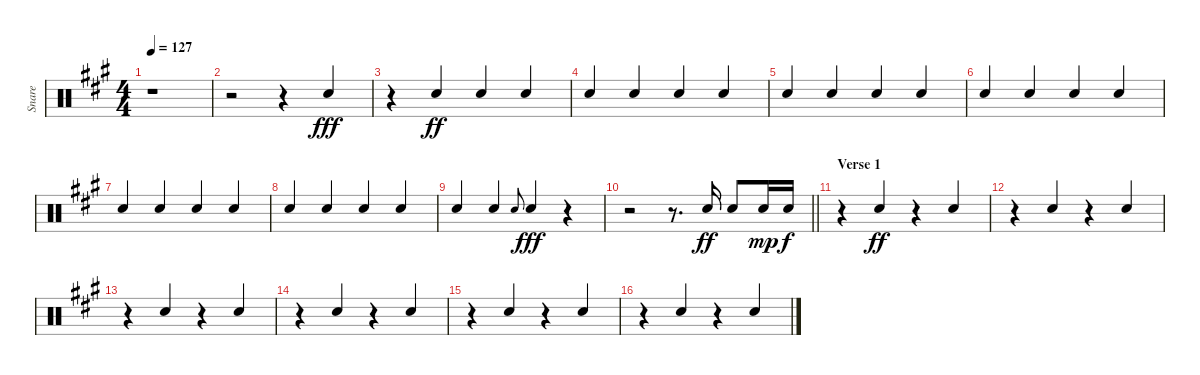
\track ("Snare" "Snare") {instrument percussion}
\staff {score}
\articulation defaults
\ts (4 4)
\tempo 127
\clef neutral
\ks a
r.1{dy fff} |
r.2 r.4 "Electric Snare (hit)".4{beam Up} |
r.4 "Electric Snare (hit)".4{dy ff beam Up} "Electric Snare (hit)".4{beam Up} "Electric Snare (hit)".4{beam Up} |
"Electric Snare (hit)".4{beam Up} "Electric Snare (hit)".4{beam Up} "Electric Snare (hit)".4{beam Up} "Electric Snare (hit)".4{beam Up} |
"Electric Snare (hit)".4{beam Up} "Electric Snare (hit)".4{beam Up} "Electric Snare (hit)".4{beam Up} "Electric Snare (hit)".4{beam Up} |
"Electric Snare (hit)".4{beam Up} "Electric Snare (hit)".4{beam Up} "Electric Snare (hit)".4{beam Up} "Electric Snare (hit)".4{beam Up} |
"Electric Snare (hit)".4{beam Up} "Electric Snare (hit)".4{beam Up} "Electric Snare (hit)".4{beam Up} "Electric Snare (hit)".4{beam Up} |
"Electric Snare (hit)".4{beam Up} "Electric Snare (hit)".4{beam Up} "Electric Snare (hit)".4{beam Up} "Electric Snare (hit)".4{beam Up} |
"Electric Snare (hit)".4{beam Up} "Electric Snare (hit)".4{beam Up} "Electric Snare (hit)".8{gr onbeat} "Electric Snare (hit)".4{dy fff beam Up} r.4 |
\barLineRight lightlight
r.2 r.8{d} "Electric Snare (hit)".16{dy ff beam Up} "Electric Snare (hit)".8{beam Up} "Electric Snare (hit)".16{dy mp beam Up} "Electric Snare (hit)".16{dy f beam Up} |
\section ("" "Verse 1")
r.4{beam merge} "Electric Snare (hit)".4{dy ff beam Up} r.4{beam merge} "Electric Snare (hit)".4{beam Up} |
r.4{beam merge} "Electric Snare (hit)".4{beam Up} r.4{beam merge} "Electric Snare (hit)".4{beam Up} |
r.4{beam merge} "Electric Snare (hit)".4{beam Up} r.4{beam merge} "Electric Snare (hit)".4{beam Up} |
r.4{beam merge} "Electric Snare (hit)".4{beam Up} r.4{beam merge} "Electric Snare (hit)".4{beam Up} |
r.4{beam merge} "Electric Snare (hit)".4{beam Up} r.4{beam merge} "Electric Snare (hit)".4{beam Up} |
r.4{beam merge} "Electric Snare (hit)".4{beam Up} r.4{beam merge} "Electric Snare (hit)".4{beam Up}
